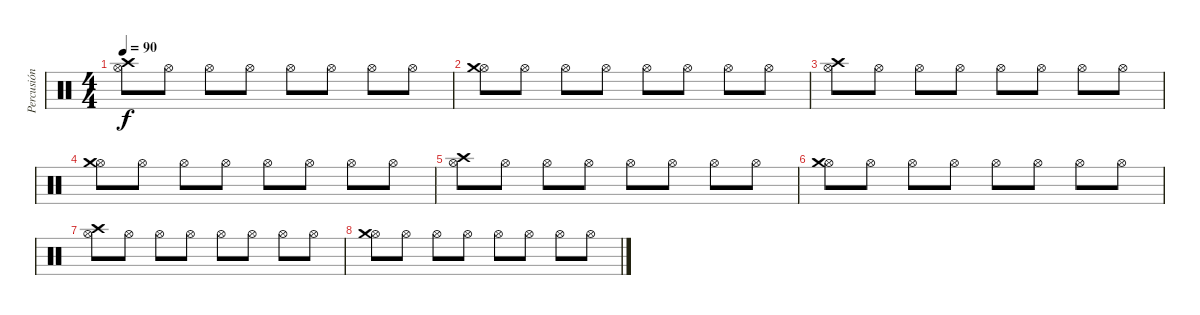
\track ("Percusión" "Percusión") {instrument percussion}
\staff {score}
\articulation defaults
\ts (4 4)
\tempo 90
\clef neutral
\ks c
("Hi-Hat (open)" "Crash high (hit)").8{dy f} "Hi-Hat (open)".8 "Hi-Hat (open)".8 "Hi-Hat (open)".8 "Hi-Hat (open)".8 "Hi-Hat (open)".8 "Hi-Hat (open)".8 "Hi-Hat (open)".8 |
("Hi-Hat (open)" "Crash medium (hit)").8 "Hi-Hat (open)".8 "Hi-Hat (open)".8 "Hi-Hat (open)".8 "Hi-Hat (open)".8 "Hi-Hat (open)".8 "Hi-Hat (open)".8 "Hi-Hat (open)".8 |
("Hi-Hat (open)" "Crash high (hit)").8 "Hi-Hat (open)".8 "Hi-Hat (open)".8 "Hi-Hat (open)".8 "Hi-Hat (open)".8 "Hi-Hat (open)".8 "Hi-Hat (open)".8 "Hi-Hat (open)".8 |
("Hi-Hat (open)" "Crash medium (hit)").8 "Hi-Hat (open)".8 "Hi-Hat (open)".8 "Hi-Hat (open)".8 "Hi-Hat (open)".8 "Hi-Hat (open)".8 "Hi-Hat (open)".8 "Hi-Hat (open)".8 |
("Hi-Hat (open)" "Crash high (hit)").8 "Hi-Hat (open)".8 "Hi-Hat (open)".8 "Hi-Hat (open)".8 "Hi-Hat (open)".8 "Hi-Hat (open)".8 "Hi-Hat (open)".8 "Hi-Hat (open)".8 |
("Hi-Hat (open)" "Crash medium (hit)").8 "Hi-Hat (open)".8 "Hi-Hat (open)".8 "Hi-Hat (open)".8 "Hi-Hat (open)".8 "Hi-Hat (open)".8 "Hi-Hat (open)".8 "Hi-Hat (open)".8 |
("Hi-Hat (open)" "Crash high (hit)").8 "Hi-Hat (open)".8 "Hi-Hat (open)".8 "Hi-Hat (open)".8 "Hi-Hat (open)".8 "Hi-Hat (open)".8 "Hi-Hat (open)".8 "Hi-Hat (open)".8 |
("Hi-Hat (open)" "Crash medium (hit)").8 "Hi-Hat (open)".8 "Hi-Hat (open)".8 "Hi-Hat (open)".8 "Hi-Hat (open)".8 "Hi-Hat (open)".8 "Hi-Hat (open)".8 "Hi-Hat (open)".8
